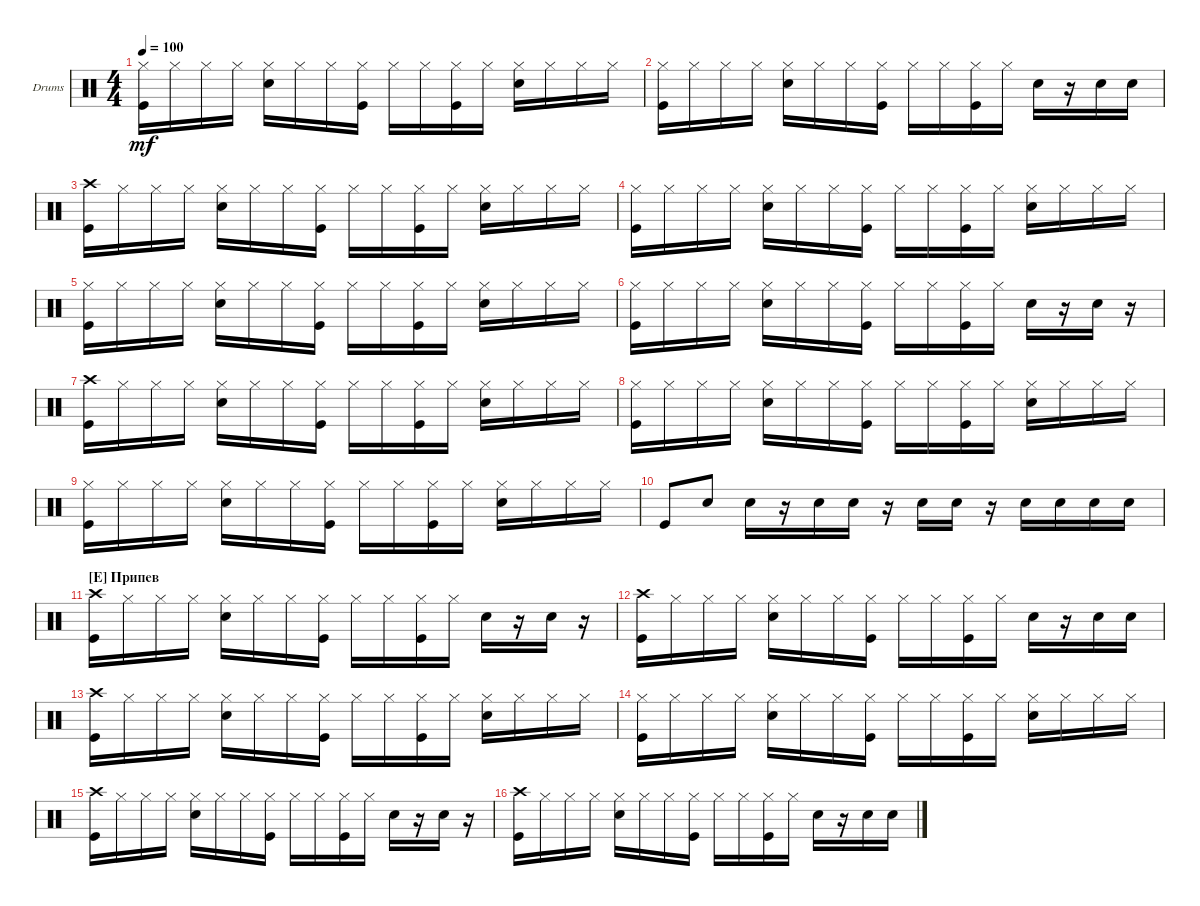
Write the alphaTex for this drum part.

\bracketExtendMode groupsimilarinstruments
\firstSystemTrackNameOrientation horizontal
\otherSystemsTrackNameOrientation horizontal
\track ("Drumkit" "Drums") {instrument percussion}
\staff {score}
\articulation defaults
\ts (4 4)
\tempo 100
\clef neutral
\ks c
("Kick (hit)" "Hi-Hat (closed)").16{dy mf} "Hi-Hat (closed)".16 "Hi-Hat (closed)".16 "Hi-Hat (closed)".16 ("Hi-Hat (closed)" "Snare (hit) 2").16 "Hi-Hat (closed)".16 "Hi-Hat (closed)".16 ("Hi-Hat (closed)" "Kick (hit)").16 "Hi-Hat (closed)".16 "Hi-Hat (closed)".16 ("Hi-Hat (closed)" "Kick (hit)").16 "Hi-Hat (closed)".16 ("Hi-Hat (closed)" "Snare (hit) 2").16 "Hi-Hat (closed)".16 "Hi-Hat (closed)".16 "Hi-Hat (closed)".16 |
("Kick (hit)" "Hi-Hat (closed)").16 "Hi-Hat (closed)".16 "Hi-Hat (closed)".16 "Hi-Hat (closed)".16 ("Hi-Hat (closed)" "Snare (hit) 2").16 "Hi-Hat (closed)".16 "Hi-Hat (closed)".16 ("Hi-Hat (closed)" "Kick (hit)").16 "Hi-Hat (closed)".16 "Hi-Hat (closed)".16 ("Hi-Hat (closed)" "Kick (hit)").16 "Hi-Hat (closed)".16 "Snare (hit) 2".16 r.16 "Snare (hit) 2".16 "Snare (hit) 2".16 |
("Kick (hit)" "Crash high (hit)").16 "Hi-Hat (closed)".16 "Hi-Hat (closed)".16 "Hi-Hat (closed)".16 ("Hi-Hat (closed)" "Snare (hit) 2").16 "Hi-Hat (closed)".16 "Hi-Hat (closed)".16 ("Hi-Hat (closed)" "Kick (hit)").16 "Hi-Hat (closed)".16 "Hi-Hat (closed)".16 ("Hi-Hat (closed)" "Kick (hit)").16 "Hi-Hat (closed)".16 ("Hi-Hat (closed)" "Snare (hit) 2").16 "Hi-Hat (closed)".16 "Hi-Hat (closed)".16 "Hi-Hat (closed)".16 |
("Kick (hit)" "Hi-Hat (closed)").16 "Hi-Hat (closed)".16 "Hi-Hat (closed)".16 "Hi-Hat (closed)".16 ("Hi-Hat (closed)" "Snare (hit) 2").16 "Hi-Hat (closed)".16 "Hi-Hat (closed)".16 ("Hi-Hat (closed)" "Kick (hit)").16 "Hi-Hat (closed)".16 "Hi-Hat (closed)".16 ("Hi-Hat (closed)" "Kick (hit)").16 "Hi-Hat (closed)".16 ("Hi-Hat (closed)" "Snare (hit) 2").16 "Hi-Hat (closed)".16 "Hi-Hat (closed)".16 "Hi-Hat (closed)".16 |
("Kick (hit)" "Hi-Hat (closed)").16 "Hi-Hat (closed)".16 "Hi-Hat (closed)".16 "Hi-Hat (closed)".16 ("Hi-Hat (closed)" "Snare (hit) 2").16 "Hi-Hat (closed)".16 "Hi-Hat (closed)".16 ("Hi-Hat (closed)" "Kick (hit)").16 "Hi-Hat (closed)".16 "Hi-Hat (closed)".16 ("Hi-Hat (closed)" "Kick (hit)").16 "Hi-Hat (closed)".16 ("Hi-Hat (closed)" "Snare (hit) 2").16 "Hi-Hat (closed)".16 "Hi-Hat (closed)".16 "Hi-Hat (closed)".16 |
("Kick (hit)" "Hi-Hat (closed)").16 "Hi-Hat (closed)".16 "Hi-Hat (closed)".16 "Hi-Hat (closed)".16 ("Hi-Hat (closed)" "Snare (hit) 2").16 "Hi-Hat (closed)".16 "Hi-Hat (closed)".16 ("Hi-Hat (closed)" "Kick (hit)").16 "Hi-Hat (closed)".16 "Hi-Hat (closed)".16 ("Hi-Hat (closed)" "Kick (hit)").16 "Hi-Hat (closed)".16 "Snare (hit) 2".16 r.16 "Snare (hit) 2".16 r.16 |
("Kick (hit)" "Crash high (hit)").16 "Hi-Hat (closed)".16 "Hi-Hat (closed)".16 "Hi-Hat (closed)".16 ("Hi-Hat (closed)" "Snare (hit) 2").16 "Hi-Hat (closed)".16 "Hi-Hat (closed)".16 ("Hi-Hat (closed)" "Kick (hit)").16 "Hi-Hat (closed)".16 "Hi-Hat (closed)".16 ("Hi-Hat (closed)" "Kick (hit)").16 "Hi-Hat (closed)".16 ("Hi-Hat (closed)" "Snare (hit) 2").16 "Hi-Hat (closed)".16 "Hi-Hat (closed)".16 "Hi-Hat (closed)".16 |
("Kick (hit)" "Hi-Hat (closed)").16 "Hi-Hat (closed)".16 "Hi-Hat (closed)".16 "Hi-Hat (closed)".16 ("Hi-Hat (closed)" "Snare (hit) 2").16 "Hi-Hat (closed)".16 "Hi-Hat (closed)".16 ("Hi-Hat (closed)" "Kick (hit)").16 "Hi-Hat (closed)".16 "Hi-Hat (closed)".16 ("Hi-Hat (closed)" "Kick (hit)").16 "Hi-Hat (closed)".16 ("Hi-Hat (closed)" "Snare (hit) 2").16 "Hi-Hat (closed)".16 "Hi-Hat (closed)".16 "Hi-Hat (closed)".16 |
("Kick (hit)" "Hi-Hat (closed)").16 "Hi-Hat (closed)".16 "Hi-Hat (closed)".16 "Hi-Hat (closed)".16 ("Hi-Hat (closed)" "Snare (hit) 2").16 "Hi-Hat (closed)".16 "Hi-Hat (closed)".16 ("Hi-Hat (closed)" "Kick (hit)").16 "Hi-Hat (closed)".16 "Hi-Hat (closed)".16 ("Hi-Hat (closed)" "Kick (hit)").16 "Hi-Hat (closed)".16 ("Hi-Hat (closed)" "Snare (hit) 2").16 "Hi-Hat (closed)".16 "Hi-Hat (closed)".16 "Hi-Hat (closed)".16 |
"Kick (hit)".8 "Snare (hit) 2".8 "Snare (hit) 2".16 r.16 "Snare (hit) 2".16 "Snare (hit) 2".16 r.16 "Snare (hit) 2".16 "Snare (hit) 2".16 r.16 "Snare (hit) 2".16 "Snare (hit) 2".16 "Snare (hit) 2".16 "Snare (hit) 2".16 |
\section ("E" "Припев")
("Kick (hit)" "Crash high (hit)").16 "Hi-Hat (closed)".16 "Hi-Hat (closed)".16 "Hi-Hat (closed)".16 ("Hi-Hat (closed)" "Snare (hit) 2").16 "Hi-Hat (closed)".16 "Hi-Hat (closed)".16 ("Hi-Hat (closed)" "Kick (hit)").16 "Hi-Hat (closed)".16 "Hi-Hat (closed)".16 ("Hi-Hat (closed)" "Kick (hit)").16 "Hi-Hat (closed)".16 "Snare (hit) 2".16 r.16 "Snare (hit) 2".16 r.16 |
("Kick (hit)" "Crash high (hit)").16 "Hi-Hat (closed)".16 "Hi-Hat (closed)".16 "Hi-Hat (closed)".16 ("Hi-Hat (closed)" "Snare (hit) 2").16 "Hi-Hat (closed)".16 "Hi-Hat (closed)".16 ("Hi-Hat (closed)" "Kick (hit)").16 "Hi-Hat (closed)".16 "Hi-Hat (closed)".16 ("Hi-Hat (closed)" "Kick (hit)").16 "Hi-Hat (closed)".16 "Snare (hit) 2".16 r.16 "Snare (hit) 2".16 "Snare (hit) 2".16 |
("Kick (hit)" "Crash high (hit)").16 "Hi-Hat (closed)".16 "Hi-Hat (closed)".16 "Hi-Hat (closed)".16 ("Hi-Hat (closed)" "Snare (hit) 2").16 "Hi-Hat (closed)".16 "Hi-Hat (closed)".16 ("Hi-Hat (closed)" "Kick (hit)").16 "Hi-Hat (closed)".16 "Hi-Hat (closed)".16 ("Hi-Hat (closed)" "Kick (hit)").16 "Hi-Hat (closed)".16 ("Hi-Hat (closed)" "Snare (hit) 2").16 "Hi-Hat (closed)".16 "Hi-Hat (closed)".16 "Hi-Hat (closed)".16 |
("Kick (hit)" "Hi-Hat (closed)").16 "Hi-Hat (closed)".16 "Hi-Hat (closed)".16 "Hi-Hat (closed)".16 ("Hi-Hat (closed)" "Snare (hit) 2").16 "Hi-Hat (closed)".16 "Hi-Hat (closed)".16 ("Hi-Hat (closed)" "Kick (hit)").16 "Hi-Hat (closed)".16 "Hi-Hat (closed)".16 ("Hi-Hat (closed)" "Kick (hit)").16 "Hi-Hat (closed)".16 ("Hi-Hat (closed)" "Snare (hit) 2").16 "Hi-Hat (closed)".16 "Hi-Hat (closed)".16 "Hi-Hat (closed)".16 |
("Kick (hit)" "Crash high (hit)").16 "Hi-Hat (closed)".16 "Hi-Hat (closed)".16 "Hi-Hat (closed)".16 ("Hi-Hat (closed)" "Snare (hit) 2").16 "Hi-Hat (closed)".16 "Hi-Hat (closed)".16 ("Hi-Hat (closed)" "Kick (hit)").16 "Hi-Hat (closed)".16 "Hi-Hat (closed)".16 ("Hi-Hat (closed)" "Kick (hit)").16 "Hi-Hat (closed)".16 "Snare (hit) 2".16 r.16 "Snare (hit) 2".16 r.16 |
("Kick (hit)" "Crash high (hit)").16 "Hi-Hat (closed)".16 "Hi-Hat (closed)".16 "Hi-Hat (closed)".16 ("Hi-Hat (closed)" "Snare (hit) 2").16 "Hi-Hat (closed)".16 "Hi-Hat (closed)".16 ("Hi-Hat (closed)" "Kick (hit)").16 "Hi-Hat (closed)".16 "Hi-Hat (closed)".16 ("Hi-Hat (closed)" "Kick (hit)").16 "Hi-Hat (closed)".16 "Snare (hit) 2".16 r.16 "Snare (hit) 2".16 "Snare (hit) 2".16
